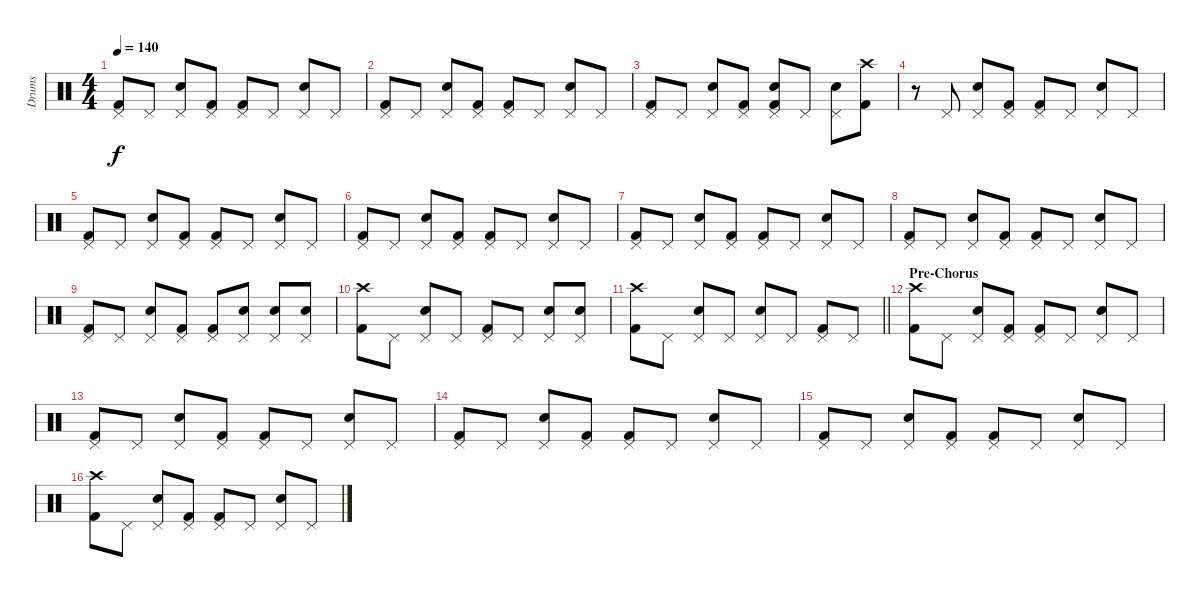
\track ("Drums" "Drums") {instrument percussion}
\staff {score}
\articulation defaults
\ts (4 4)
\tempo 140
\clef neutral
\ks c
("Pedal Hi-Hat (hit)" "Kick (hit) 2").8{dy f} "Pedal Hi-Hat (hit)".8 ("Pedal Hi-Hat (hit)" "Electric Snare (hit)").8 ("Pedal Hi-Hat (hit)" "Kick (hit) 2").8 ("Pedal Hi-Hat (hit)" "Kick (hit) 2").8 "Pedal Hi-Hat (hit)".8 ("Pedal Hi-Hat (hit)" "Electric Snare (hit)").8 "Pedal Hi-Hat (hit)".8 |
("Pedal Hi-Hat (hit)" "Kick (hit) 2").8 "Pedal Hi-Hat (hit)".8 ("Pedal Hi-Hat (hit)" "Electric Snare (hit)").8 ("Pedal Hi-Hat (hit)" "Kick (hit) 2").8 ("Pedal Hi-Hat (hit)" "Kick (hit) 2").8 "Pedal Hi-Hat (hit)".8 ("Pedal Hi-Hat (hit)" "Electric Snare (hit)").8 "Pedal Hi-Hat (hit)".8 |
("Pedal Hi-Hat (hit)" "Kick (hit) 2").8 "Pedal Hi-Hat (hit)".8 ("Pedal Hi-Hat (hit)" "Electric Snare (hit)").8 ("Pedal Hi-Hat (hit)" "Kick (hit) 2").8 ("Pedal Hi-Hat (hit)" "Electric Snare (hit)" "Kick (hit) 2").8 "Pedal Hi-Hat (hit)".8 ("Pedal Hi-Hat (hit)" "Electric Snare (hit)").8 ("Crash high (hit)" "Kick (hit) 2").8 |
r.8 "Pedal Hi-Hat (hit)".8 ("Pedal Hi-Hat (hit)" "Electric Snare (hit)").8 ("Pedal Hi-Hat (hit)" "Kick (hit) 2").8 ("Pedal Hi-Hat (hit)" "Kick (hit) 2").8 "Pedal Hi-Hat (hit)".8 ("Pedal Hi-Hat (hit)" "Electric Snare (hit)").8 "Pedal Hi-Hat (hit)".8 |
("Pedal Hi-Hat (hit)" "Kick (hit) 2").8 "Pedal Hi-Hat (hit)".8 ("Pedal Hi-Hat (hit)" "Electric Snare (hit)").8 ("Pedal Hi-Hat (hit)" "Kick (hit) 2").8 ("Pedal Hi-Hat (hit)" "Kick (hit) 2").8 "Pedal Hi-Hat (hit)".8 ("Pedal Hi-Hat (hit)" "Electric Snare (hit)").8 "Pedal Hi-Hat (hit)".8 |
("Pedal Hi-Hat (hit)" "Kick (hit) 2").8 "Pedal Hi-Hat (hit)".8 ("Pedal Hi-Hat (hit)" "Electric Snare (hit)").8 ("Pedal Hi-Hat (hit)" "Kick (hit) 2").8 ("Pedal Hi-Hat (hit)" "Kick (hit) 2").8 "Pedal Hi-Hat (hit)".8 ("Pedal Hi-Hat (hit)" "Electric Snare (hit)").8 "Pedal Hi-Hat (hit)".8 |
("Pedal Hi-Hat (hit)" "Kick (hit) 2").8 "Pedal Hi-Hat (hit)".8 ("Pedal Hi-Hat (hit)" "Electric Snare (hit)").8 ("Pedal Hi-Hat (hit)" "Kick (hit) 2").8 ("Pedal Hi-Hat (hit)" "Kick (hit) 2").8 "Pedal Hi-Hat (hit)".8 ("Pedal Hi-Hat (hit)" "Electric Snare (hit)").8 "Pedal Hi-Hat (hit)".8 |
("Pedal Hi-Hat (hit)" "Kick (hit) 2").8 "Pedal Hi-Hat (hit)".8 ("Pedal Hi-Hat (hit)" "Electric Snare (hit)").8 ("Pedal Hi-Hat (hit)" "Kick (hit) 2").8 ("Pedal Hi-Hat (hit)" "Kick (hit) 2").8 "Pedal Hi-Hat (hit)".8 ("Pedal Hi-Hat (hit)" "Electric Snare (hit)").8 "Pedal Hi-Hat (hit)".8 |
("Pedal Hi-Hat (hit)" "Kick (hit) 2").8 "Pedal Hi-Hat (hit)".8 ("Pedal Hi-Hat (hit)" "Electric Snare (hit)").8 ("Pedal Hi-Hat (hit)" "Kick (hit) 2").8 ("Pedal Hi-Hat (hit)" "Kick (hit) 2").8 ("Pedal Hi-Hat (hit)" "Electric Snare (hit)").8 ("Pedal Hi-Hat (hit)" "Electric Snare (hit)").8 ("Pedal Hi-Hat (hit)" "Electric Snare (hit)").8 |
("Crash high (hit)" "Kick (hit) 2").8 "Pedal Hi-Hat (hit)".8 ("Pedal Hi-Hat (hit)" "Electric Snare (hit)").8 "Pedal Hi-Hat (hit)".8 ("Pedal Hi-Hat (hit)" "Kick (hit) 2").8 "Pedal Hi-Hat (hit)".8 ("Pedal Hi-Hat (hit)" "Electric Snare (hit)").8 ("Pedal Hi-Hat (hit)" "Electric Snare (hit)").8 |
\barLineRight lightlight
("Crash high (hit)" "Kick (hit) 2").8 "Pedal Hi-Hat (hit)".8 ("Pedal Hi-Hat (hit)" "Electric Snare (hit)").8 "Pedal Hi-Hat (hit)".8 ("Pedal Hi-Hat (hit)" "Electric Snare (hit)").8 "Pedal Hi-Hat (hit)".8 ("Pedal Hi-Hat (hit)" "Kick (hit) 2").8 "Pedal Hi-Hat (hit)".8 |
\section ("" "Pre-Chorus")
("Crash high (hit)" "Kick (hit) 2").8 "Pedal Hi-Hat (hit)".8 ("Pedal Hi-Hat (hit)" "Electric Snare (hit)").8 ("Pedal Hi-Hat (hit)" "Kick (hit) 2").8 ("Pedal Hi-Hat (hit)" "Kick (hit) 2").8 "Pedal Hi-Hat (hit)".8 ("Pedal Hi-Hat (hit)" "Electric Snare (hit)").8 "Pedal Hi-Hat (hit)".8 |
("Pedal Hi-Hat (hit)" "Kick (hit) 2").8 "Pedal Hi-Hat (hit)".8 ("Pedal Hi-Hat (hit)" "Electric Snare (hit)").8 ("Pedal Hi-Hat (hit)" "Kick (hit) 2").8 ("Pedal Hi-Hat (hit)" "Kick (hit) 2").8 "Pedal Hi-Hat (hit)".8 ("Pedal Hi-Hat (hit)" "Electric Snare (hit)").8 "Pedal Hi-Hat (hit)".8 |
("Pedal Hi-Hat (hit)" "Kick (hit) 2").8 "Pedal Hi-Hat (hit)".8 ("Pedal Hi-Hat (hit)" "Electric Snare (hit)").8 ("Pedal Hi-Hat (hit)" "Kick (hit) 2").8 ("Pedal Hi-Hat (hit)" "Kick (hit) 2").8 "Pedal Hi-Hat (hit)".8 ("Pedal Hi-Hat (hit)" "Electric Snare (hit)").8 "Pedal Hi-Hat (hit)".8 |
("Pedal Hi-Hat (hit)" "Kick (hit) 2").8 "Pedal Hi-Hat (hit)".8 ("Pedal Hi-Hat (hit)" "Electric Snare (hit)").8 ("Pedal Hi-Hat (hit)" "Kick (hit) 2").8 ("Pedal Hi-Hat (hit)" "Kick (hit) 2").8 "Pedal Hi-Hat (hit)".8 ("Pedal Hi-Hat (hit)" "Electric Snare (hit)").8 "Pedal Hi-Hat (hit)".8 |
("Crash high (hit)" "Kick (hit) 2").8 "Pedal Hi-Hat (hit)".8 ("Pedal Hi-Hat (hit)" "Electric Snare (hit)").8 ("Pedal Hi-Hat (hit)" "Kick (hit) 2").8 ("Pedal Hi-Hat (hit)" "Kick (hit) 2").8 "Pedal Hi-Hat (hit)".8 ("Pedal Hi-Hat (hit)" "Electric Snare (hit)").8 "Pedal Hi-Hat (hit)".8
